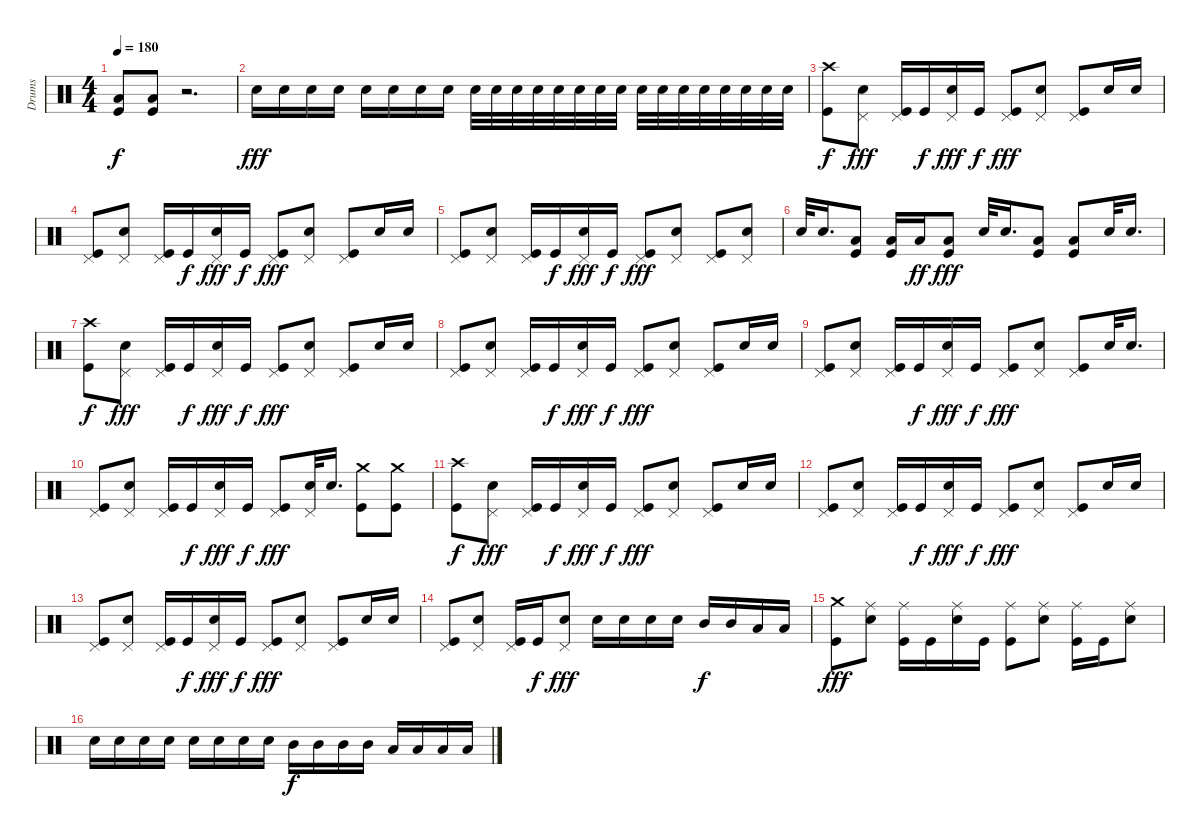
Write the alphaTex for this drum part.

\track ("Drums" "Drums") {instrument percussion}
\staff {score}
\articulation defaults
\ts (4 4)
\tempo 180
\clef neutral
\ks c
("Low Tom (hit)" "Kick (hit)").8{dy f} ("Low Tom (hit)" "Kick (hit)").8 r.2{d} |
"Snare (hit) 2".16{dy fff} "Snare (hit) 2".16 "Snare (hit) 2".16 "Snare (hit) 2".16 "Snare (hit) 2".16 "Snare (hit) 2".16 "Snare (hit) 2".16 "Snare (hit) 2".16 "Snare (hit) 2".32 "Snare (hit) 2".32 "Snare (hit) 2".32 "Snare (hit) 2".32 "Snare (hit) 2".32 "Snare (hit) 2".32 "Snare (hit) 2".32 "Snare (hit) 2".32 "Snare (hit) 2".32 "Snare (hit) 2".32 "Snare (hit) 2".32 "Snare (hit) 2".32 "Snare (hit) 2".32 "Snare (hit) 2".32 "Snare (hit) 2".32 "Snare (hit) 2".32 |
("Crash high (hit)" "Kick (hit)").8{dy f} ("Pedal Hi-Hat (hit)" "Snare (hit) 2").8{dy fff} ("Pedal Hi-Hat (hit)" "Kick (hit)").16 "Kick (hit)".16{dy f} ("Pedal Hi-Hat (hit)" "Snare (hit) 2").16{dy fff} "Kick (hit)".16{dy f} ("Pedal Hi-Hat (hit)" "Kick (hit)").8{dy fff} ("Pedal Hi-Hat (hit)" "Snare (hit) 2").8 ("Pedal Hi-Hat (hit)" "Kick (hit)").8 "Snare (hit) 2".16 "Snare (hit) 2".16 |
("Pedal Hi-Hat (hit)" "Kick (hit)").8 ("Pedal Hi-Hat (hit)" "Snare (hit) 2").8 ("Pedal Hi-Hat (hit)" "Kick (hit)").16 "Kick (hit)".16{dy f} ("Pedal Hi-Hat (hit)" "Snare (hit) 2").16{dy fff} "Kick (hit)".16{dy f} ("Pedal Hi-Hat (hit)" "Kick (hit)").8{dy fff} ("Pedal Hi-Hat (hit)" "Snare (hit) 2").8 ("Pedal Hi-Hat (hit)" "Kick (hit)").8 "Snare (hit) 2".16 "Snare (hit) 2".16 |
("Pedal Hi-Hat (hit)" "Kick (hit)").8 ("Pedal Hi-Hat (hit)" "Snare (hit) 2").8 ("Pedal Hi-Hat (hit)" "Kick (hit)").16 "Kick (hit)".16{dy f} ("Pedal Hi-Hat (hit)" "Snare (hit) 2").16{dy fff} "Kick (hit)".16{dy f} ("Pedal Hi-Hat (hit)" "Kick (hit)").8{dy fff} ("Pedal Hi-Hat (hit)" "Snare (hit) 2").8 ("Pedal Hi-Hat (hit)" "Kick (hit)").8 ("Pedal Hi-Hat (hit)" "Snare (hit) 2").8 |
"Snare (hit) 2".32 "Snare (hit) 2".16{d} ("Low Tom (hit)" "Kick (hit)").8 ("Low Tom (hit)" "Kick (hit)").16 "Low Tom (hit)".16{dy ff} ("Low Tom (hit)" "Kick (hit)").8{dy fff} "Snare (hit) 2".32 "Snare (hit) 2".16{d} ("Low Tom (hit)" "Kick (hit)").8 ("Low Tom (hit)" "Kick (hit)").8 "Snare (hit) 2".32 "Snare (hit) 2".16{d} |
("Crash high (hit)" "Kick (hit)").8{dy f} ("Pedal Hi-Hat (hit)" "Snare (hit) 2").8{dy fff} ("Pedal Hi-Hat (hit)" "Kick (hit)").16 "Kick (hit)".16{dy f} ("Pedal Hi-Hat (hit)" "Snare (hit) 2").16{dy fff} "Kick (hit)".16{dy f} ("Pedal Hi-Hat (hit)" "Kick (hit)").8{dy fff} ("Pedal Hi-Hat (hit)" "Snare (hit) 2").8 ("Pedal Hi-Hat (hit)" "Kick (hit)").8 "Snare (hit) 2".16 "Snare (hit) 2".16 |
("Pedal Hi-Hat (hit)" "Kick (hit)").8 ("Pedal Hi-Hat (hit)" "Snare (hit) 2").8 ("Pedal Hi-Hat (hit)" "Kick (hit)").16 "Kick (hit)".16{dy f} ("Pedal Hi-Hat (hit)" "Snare (hit) 2").16{dy fff} "Kick (hit)".16{dy f} ("Pedal Hi-Hat (hit)" "Kick (hit)").8{dy fff} ("Pedal Hi-Hat (hit)" "Snare (hit) 2").8 ("Pedal Hi-Hat (hit)" "Kick (hit)").8 "Snare (hit) 2".16 "Snare (hit) 2".16 |
("Pedal Hi-Hat (hit)" "Kick (hit)").8 ("Pedal Hi-Hat (hit)" "Snare (hit) 2").8 ("Pedal Hi-Hat (hit)" "Kick (hit)").16 "Kick (hit)".16{dy f} ("Pedal Hi-Hat (hit)" "Snare (hit) 2").16{dy fff} "Kick (hit)".16{dy f} ("Pedal Hi-Hat (hit)" "Kick (hit)").8{dy fff} ("Pedal Hi-Hat (hit)" "Snare (hit) 2").8 ("Pedal Hi-Hat (hit)" "Kick (hit)").8 "Snare (hit) 2".32 "Snare (hit) 2".16{d} |
("Pedal Hi-Hat (hit)" "Kick (hit)").8 ("Pedal Hi-Hat (hit)" "Snare (hit) 2").8 ("Pedal Hi-Hat (hit)" "Kick (hit)").16 "Kick (hit)".16{dy f} ("Pedal Hi-Hat (hit)" "Snare (hit) 2").16{dy fff} "Kick (hit)".16{dy f} ("Pedal Hi-Hat (hit)" "Kick (hit)").8{dy fff} ("Pedal Hi-Hat (hit)" "Snare (hit) 2").32 "Snare (hit) 2".16{d} ("Crash medium (hit)" "Kick (hit)").8 ("Crash medium (hit)" "Kick (hit)").8 |
("Crash high (hit)" "Kick (hit)").8{dy f} ("Pedal Hi-Hat (hit)" "Snare (hit) 2").8{dy fff} ("Pedal Hi-Hat (hit)" "Kick (hit)").16 "Kick (hit)".16{dy f} ("Pedal Hi-Hat (hit)" "Snare (hit) 2").16{dy fff} "Kick (hit)".16{dy f} ("Pedal Hi-Hat (hit)" "Kick (hit)").8{dy fff} ("Pedal Hi-Hat (hit)" "Snare (hit) 2").8 ("Pedal Hi-Hat (hit)" "Kick (hit)").8 "Snare (hit) 2".16 "Snare (hit) 2".16 |
("Pedal Hi-Hat (hit)" "Kick (hit)").8 ("Pedal Hi-Hat (hit)" "Snare (hit) 2").8 ("Pedal Hi-Hat (hit)" "Kick (hit)").16 "Kick (hit)".16{dy f} ("Pedal Hi-Hat (hit)" "Snare (hit) 2").16{dy fff} "Kick (hit)".16{dy f} ("Pedal Hi-Hat (hit)" "Kick (hit)").8{dy fff} ("Pedal Hi-Hat (hit)" "Snare (hit) 2").8 ("Pedal Hi-Hat (hit)" "Kick (hit)").8 "Snare (hit) 2".16 "Snare (hit) 2".16 |
("Pedal Hi-Hat (hit)" "Kick (hit)").8 ("Pedal Hi-Hat (hit)" "Snare (hit) 2").8 ("Pedal Hi-Hat (hit)" "Kick (hit)").16 "Kick (hit)".16{dy f} ("Pedal Hi-Hat (hit)" "Snare (hit) 2").16{dy fff} "Kick (hit)".16{dy f} ("Pedal Hi-Hat (hit)" "Kick (hit)").8{dy fff} ("Pedal Hi-Hat (hit)" "Snare (hit) 2").8 ("Pedal Hi-Hat (hit)" "Kick (hit)").8 "Snare (hit) 2".16 "Snare (hit) 2".16 |
("Pedal Hi-Hat (hit)" "Kick (hit)").8 ("Pedal Hi-Hat (hit)" "Snare (hit) 2").8 ("Pedal Hi-Hat (hit)" "Kick (hit)").16 "Kick (hit)".16{dy f} ("Pedal Hi-Hat (hit)" "Snare (hit) 2").8{dy fff} "Snare (hit) 2".16 "Snare (hit) 2".16 "Snare (hit) 2".16 "Snare (hit) 2".16 "Mid Tom (hit)".16{dy f} "Mid Tom (hit)".16 "Low Tom (hit)".16 "Low Tom (hit)".16 |
("Crash medium (hit)" "Kick (hit)").8{dy fff} ("Ride (middle)" "Snare (hit) 2").8 ("Ride (middle)" "Kick (hit)").16 "Kick (hit)".16 ("Ride (middle)" "Snare (hit) 2").16 "Kick (hit)".16 ("Ride (middle)" "Kick (hit)").8 ("Ride (middle)" "Snare (hit) 2").8 ("Ride (middle)" "Kick (hit)").16 "Kick (hit)".16 ("Ride (middle)" "Snare (hit) 2").8 |
"Snare (hit) 2".16 "Snare (hit) 2".16 "Snare (hit) 2".16 "Snare (hit) 2".16 "Snare (hit) 2".16 "Snare (hit) 2".16 "Snare (hit) 2".16 "Snare (hit) 2".16 "Mid Tom (hit)".16{dy f} "Mid Tom (hit)".16 "Mid Tom (hit)".16 "Mid Tom (hit)".16 "Low Tom (hit)".16 "Low Tom (hit)".16 "Low Tom (hit)".16 "Low Tom (hit)".16
